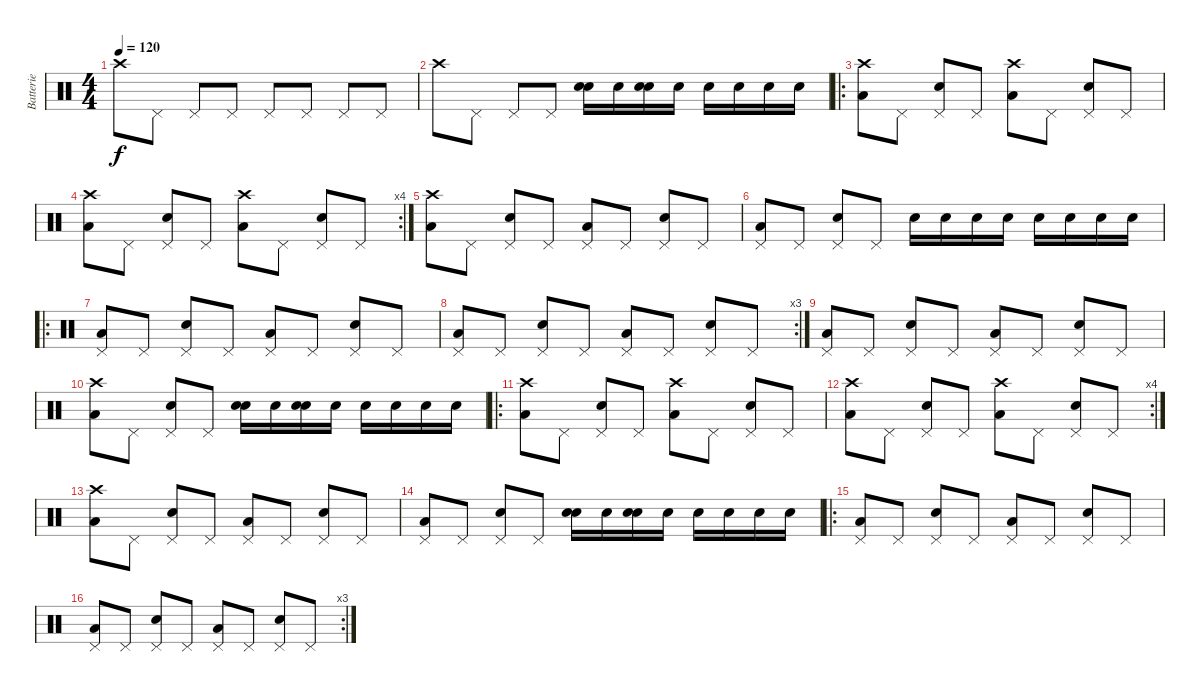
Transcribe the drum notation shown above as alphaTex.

\track ("Batterie" "Batterie") {instrument percussion}
\staff {score}
\articulation defaults
\ts (4 4)
\tempo 120
\clef neutral
\ks c "Crash high (hit)".8{dy f} "Pedal Hi-Hat (hit)".8 "Pedal Hi-Hat (hit)".8 "Pedal Hi-Hat (hit)".8 "Pedal Hi-Hat (hit)".8 "Pedal Hi-Hat (hit)".8 "Pedal Hi-Hat (hit)".8 "Pedal Hi-Hat (hit)".8
|
"Crash high (hit)".8 "Pedal Hi-Hat (hit)".8 "Pedal Hi-Hat (hit)".8 "Pedal Hi-Hat (hit)".8 ("Electric Snare (hit)" "Hand Clap (hit)").16 "Electric Snare (hit)".16 ("Electric Snare (hit)" "Hand Clap (hit)").16 "Electric Snare (hit)".16 "Electric Snare (hit)".16 "Electric Snare (hit)".16 "Electric Snare (hit)".16 "Electric Snare (hit)".16 |
\ro
("Crash high (hit)" "Low Floor Tom (hit)").8 "Pedal Hi-Hat (hit)".8 ("Pedal Hi-Hat (hit)" "Electric Snare (hit)").8 "Pedal Hi-Hat (hit)".8 ("Crash high (hit)" "Low Floor Tom (hit)").8 "Pedal Hi-Hat (hit)".8 ("Pedal Hi-Hat (hit)" "Electric Snare (hit)").8 "Pedal Hi-Hat (hit)".8 |
\rc 4
("Crash high (hit)" "Low Floor Tom (hit)").8 "Pedal Hi-Hat (hit)".8 ("Pedal Hi-Hat (hit)" "Electric Snare (hit)").8 "Pedal Hi-Hat (hit)".8 ("Crash high (hit)" "Low Floor Tom (hit)").8 "Pedal Hi-Hat (hit)".8 ("Pedal Hi-Hat (hit)" "Electric Snare (hit)").8 "Pedal Hi-Hat (hit)".8 |
("Crash high (hit)" "Low Floor Tom (hit)").8 "Pedal Hi-Hat (hit)".8 ("Pedal Hi-Hat (hit)" "Electric Snare (hit)").8 "Pedal Hi-Hat (hit)".8 ("Pedal Hi-Hat (hit)" "Low Floor Tom (hit)").8 "Pedal Hi-Hat (hit)".8 ("Pedal Hi-Hat (hit)" "Electric Snare (hit)").8 "Pedal Hi-Hat (hit)".8 |
("Pedal Hi-Hat (hit)" "Low Floor Tom (hit)").8 "Pedal Hi-Hat (hit)".8 ("Pedal Hi-Hat (hit)" "Electric Snare (hit)").8 "Pedal Hi-Hat (hit)".8 "Electric Snare (hit)".16 "Electric Snare (hit)".16 "Electric Snare (hit)".16 "Electric Snare (hit)".16 "Electric Snare (hit)".16 "Electric Snare (hit)".16 "Electric Snare (hit)".16 "Electric Snare (hit)".16 |
\ro
("Pedal Hi-Hat (hit)" "Low Floor Tom (hit)").8 "Pedal Hi-Hat (hit)".8 ("Pedal Hi-Hat (hit)" "Electric Snare (hit)").8 "Pedal Hi-Hat (hit)".8 ("Pedal Hi-Hat (hit)" "Low Floor Tom (hit)").8 "Pedal Hi-Hat (hit)".8 ("Pedal Hi-Hat (hit)" "Electric Snare (hit)").8 "Pedal Hi-Hat (hit)".8 |
\rc 3
("Pedal Hi-Hat (hit)" "Low Floor Tom (hit)").8 "Pedal Hi-Hat (hit)".8 ("Pedal Hi-Hat (hit)" "Electric Snare (hit)").8 "Pedal Hi-Hat (hit)".8 ("Pedal Hi-Hat (hit)" "Low Floor Tom (hit)").8 "Pedal Hi-Hat (hit)".8 ("Pedal Hi-Hat (hit)" "Electric Snare (hit)").8 "Pedal Hi-Hat (hit)".8 |
("Pedal Hi-Hat (hit)" "Low Floor Tom (hit)").8 "Pedal Hi-Hat (hit)".8 ("Pedal Hi-Hat (hit)" "Electric Snare (hit)").8 "Pedal Hi-Hat (hit)".8 ("Pedal Hi-Hat (hit)" "Low Floor Tom (hit)").8 "Pedal Hi-Hat (hit)".8 ("Pedal Hi-Hat (hit)" "Electric Snare (hit)").8 "Pedal Hi-Hat (hit)".8 |
("Crash high (hit)" "Low Floor Tom (hit)").8 "Pedal Hi-Hat (hit)".8 ("Pedal Hi-Hat (hit)" "Electric Snare (hit)").8 "Pedal Hi-Hat (hit)".8 ("Electric Snare (hit)" "Hand Clap (hit)").16 "Electric Snare (hit)".16 ("Electric Snare (hit)" "Hand Clap (hit)").16 "Electric Snare (hit)".16 "Electric Snare (hit)".16 "Electric Snare (hit)".16 "Electric Snare (hit)".16 "Electric Snare (hit)".16 |
\ro
("Crash high (hit)" "Low Floor Tom (hit)").8 "Pedal Hi-Hat (hit)".8 ("Pedal Hi-Hat (hit)" "Electric Snare (hit)").8 "Pedal Hi-Hat (hit)".8 ("Crash high (hit)" "Low Floor Tom (hit)").8 "Pedal Hi-Hat (hit)".8 ("Pedal Hi-Hat (hit)" "Electric Snare (hit)").8 "Pedal Hi-Hat (hit)".8 |
\rc 4
("Crash high (hit)" "Low Floor Tom (hit)").8 "Pedal Hi-Hat (hit)".8 ("Pedal Hi-Hat (hit)" "Electric Snare (hit)").8 "Pedal Hi-Hat (hit)".8 ("Crash high (hit)" "Low Floor Tom (hit)").8 "Pedal Hi-Hat (hit)".8 ("Pedal Hi-Hat (hit)" "Electric Snare (hit)").8 "Pedal Hi-Hat (hit)".8 |
("Crash high (hit)" "Low Floor Tom (hit)").8 "Pedal Hi-Hat (hit)".8 ("Pedal Hi-Hat (hit)" "Electric Snare (hit)").8 "Pedal Hi-Hat (hit)".8 ("Pedal Hi-Hat (hit)" "Low Floor Tom (hit)").8 "Pedal Hi-Hat (hit)".8 ("Pedal Hi-Hat (hit)" "Electric Snare (hit)").8 "Pedal Hi-Hat (hit)".8 |
("Pedal Hi-Hat (hit)" "Low Floor Tom (hit)").8 "Pedal Hi-Hat (hit)".8 ("Pedal Hi-Hat (hit)" "Electric Snare (hit)").8 "Pedal Hi-Hat (hit)".8 ("Electric Snare (hit)" "Hand Clap (hit)").16 "Electric Snare (hit)".16 ("Electric Snare (hit)" "Hand Clap (hit)").16 "Electric Snare (hit)".16 "Electric Snare (hit)".16 "Electric Snare (hit)".16 "Electric Snare (hit)".16 "Electric Snare (hit)".16 |
\ro
("Pedal Hi-Hat (hit)" "Low Floor Tom (hit)").8 "Pedal Hi-Hat (hit)".8 ("Pedal Hi-Hat (hit)" "Electric Snare (hit)").8 "Pedal Hi-Hat (hit)".8 ("Pedal Hi-Hat (hit)" "Low Floor Tom (hit)").8 "Pedal Hi-Hat (hit)".8 ("Pedal Hi-Hat (hit)" "Electric Snare (hit)").8 "Pedal Hi-Hat (hit)".8 |
\rc 3
("Pedal Hi-Hat (hit)" "Low Floor Tom (hit)").8 "Pedal Hi-Hat (hit)".8 ("Pedal Hi-Hat (hit)" "Electric Snare (hit)").8 "Pedal Hi-Hat (hit)".8 ("Pedal Hi-Hat (hit)" "Low Floor Tom (hit)").8 "Pedal Hi-Hat (hit)".8 ("Pedal Hi-Hat (hit)" "Electric Snare (hit)").8 "Pedal Hi-Hat (hit)".8
